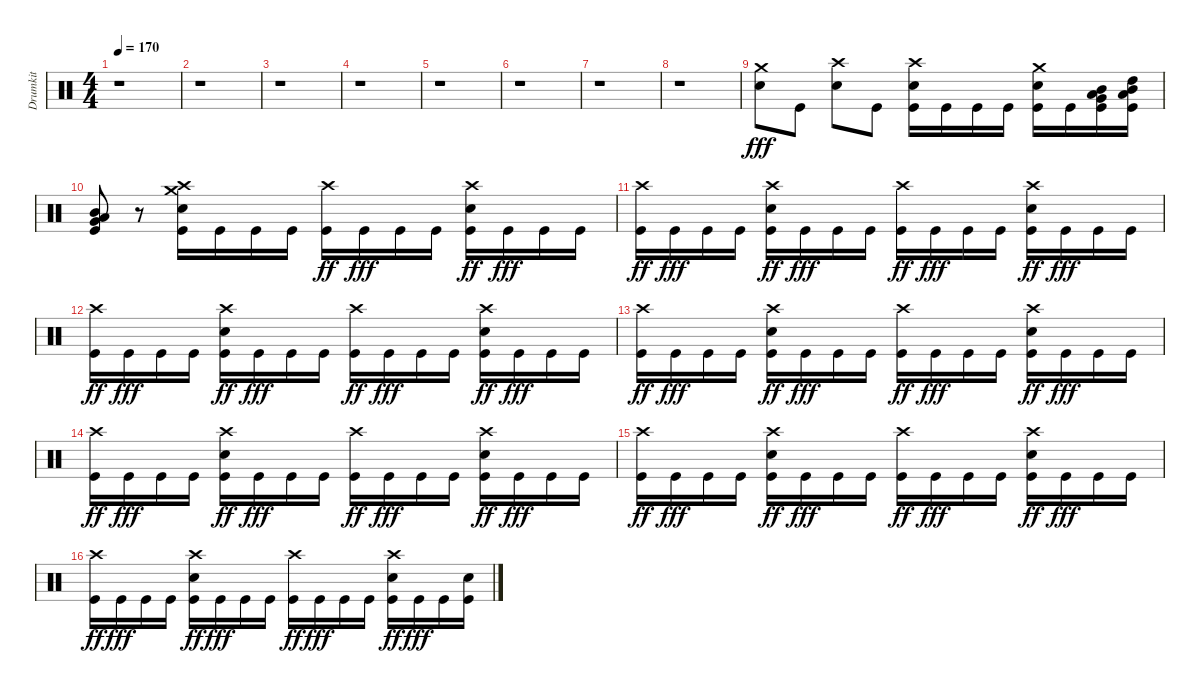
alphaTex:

\track ("Drumkit" "Drumkit") {instrument percussion}
\staff {score}
\articulation defaults
\ts (4 4)
\tempo 170
\clef neutral
\ks c
r.1{dy fff} |
r.1 |
r.1 |
r.1 |
r.1 |
r.1 |
r.1 |
r.1 |
("Crash medium (hit)" "Snare (hit) 2").8 "Kick (hit)".8 ("Crash high (hit)" "Snare (hit) 2").8 "Kick (hit)".8 ("Crash high (hit)" "Snare (hit) 2" "Kick (hit)").16 "Kick (hit)".16 "Kick (hit)".16 "Kick (hit)".16 ("Crash medium (hit)" "Snare (hit) 2" "Kick (hit)").16 "Kick (hit)".16 ("Mid Tom (hit)" "Very Low Tom (hit)" "Low Floor Tom (hit)" "Kick (hit)").16 ("High Tom (hit)" "Mid Tom (hit)" "Low Floor Tom (hit)" "Kick (hit)").16 |
("Mid Tom (hit)" "Very Low Tom (hit)" "Low Floor Tom (hit)" "Kick (hit)").8 r.8 ("Crash high (hit)" "Crash medium (hit)" "Snare (hit) 2" "Kick (hit)").16 "Kick (hit)".16 "Kick (hit)".16 "Kick (hit)".16 ("Crash high (hit)" "Kick (hit)").16{dy ff} "Kick (hit)".16{dy fff} "Kick (hit)".16 "Kick (hit)".16 ("Crash high (hit)" "Snare (hit) 2" "Kick (hit)").16{dy ff} "Kick (hit)".16{dy fff} "Kick (hit)".16 "Kick (hit)".16 |
("Crash high (hit)" "Kick (hit)").16{dy ff} "Kick (hit)".16{dy fff} "Kick (hit)".16 "Kick (hit)".16 ("Crash high (hit)" "Snare (hit) 2" "Kick (hit)").16{dy ff} "Kick (hit)".16{dy fff} "Kick (hit)".16 "Kick (hit)".16 ("Crash high (hit)" "Kick (hit)").16{dy ff} "Kick (hit)".16{dy fff} "Kick (hit)".16 "Kick (hit)".16 ("Crash high (hit)" "Snare (hit) 2" "Kick (hit)").16{dy ff} "Kick (hit)".16{dy fff} "Kick (hit)".16 "Kick (hit)".16 |
("Crash high (hit)" "Kick (hit)").16{dy ff} "Kick (hit)".16{dy fff} "Kick (hit)".16 "Kick (hit)".16 ("Crash high (hit)" "Snare (hit) 2" "Kick (hit)").16{dy ff} "Kick (hit)".16{dy fff} "Kick (hit)".16 "Kick (hit)".16 ("Crash high (hit)" "Kick (hit)").16{dy ff} "Kick (hit)".16{dy fff} "Kick (hit)".16 "Kick (hit)".16 ("Crash high (hit)" "Snare (hit) 2" "Kick (hit)").16{dy ff} "Kick (hit)".16{dy fff} "Kick (hit)".16 "Kick (hit)".16 |
("Crash high (hit)" "Kick (hit)").16{dy ff} "Kick (hit)".16{dy fff} "Kick (hit)".16 "Kick (hit)".16 ("Crash high (hit)" "Snare (hit) 2" "Kick (hit)").16{dy ff} "Kick (hit)".16{dy fff} "Kick (hit)".16 "Kick (hit)".16 ("Crash high (hit)" "Kick (hit)").16{dy ff} "Kick (hit)".16{dy fff} "Kick (hit)".16 "Kick (hit)".16 ("Crash high (hit)" "Snare (hit) 2" "Kick (hit)").16{dy ff} "Kick (hit)".16{dy fff} "Kick (hit)".16 "Kick (hit)".16 |
("Crash high (hit)" "Kick (hit)").16{dy ff} "Kick (hit)".16{dy fff} "Kick (hit)".16 "Kick (hit)".16 ("Crash high (hit)" "Snare (hit) 2" "Kick (hit)").16{dy ff} "Kick (hit)".16{dy fff} "Kick (hit)".16 "Kick (hit)".16 ("Crash high (hit)" "Kick (hit)").16{dy ff} "Kick (hit)".16{dy fff} "Kick (hit)".16 "Kick (hit)".16 ("Crash high (hit)" "Snare (hit) 2" "Kick (hit)").16{dy ff} "Kick (hit)".16{dy fff} "Kick (hit)".16 "Kick (hit)".16 |
("Crash high (hit)" "Kick (hit)").16{dy ff} "Kick (hit)".16{dy fff} "Kick (hit)".16 "Kick (hit)".16 ("Crash high (hit)" "Snare (hit) 2" "Kick (hit)").16{dy ff} "Kick (hit)".16{dy fff} "Kick (hit)".16 "Kick (hit)".16 ("Crash high (hit)" "Kick (hit)").16{dy ff} "Kick (hit)".16{dy fff} "Kick (hit)".16 "Kick (hit)".16 ("Crash high (hit)" "Snare (hit) 2" "Kick (hit)").16{dy ff} "Kick (hit)".16{dy fff} "Kick (hit)".16 "Kick (hit)".16 |
("Crash high (hit)" "Kick (hit)").16{dy ff} "Kick (hit)".16{dy fff} "Kick (hit)".16 "Kick (hit)".16 ("Crash high (hit)" "Snare (hit) 2" "Kick (hit)").16{dy ff} "Kick (hit)".16{dy fff} "Kick (hit)".16 "Kick (hit)".16 ("Crash high (hit)" "Kick (hit)").16{dy ff} "Kick (hit)".16{dy fff} "Kick (hit)".16 "Kick (hit)".16 ("Crash high (hit)" "Snare (hit) 2" "Kick (hit)").16{dy ff} "Kick (hit)".16{dy fff} "Kick (hit)".16 ("Snare (hit) 2" "Kick (hit)").16
